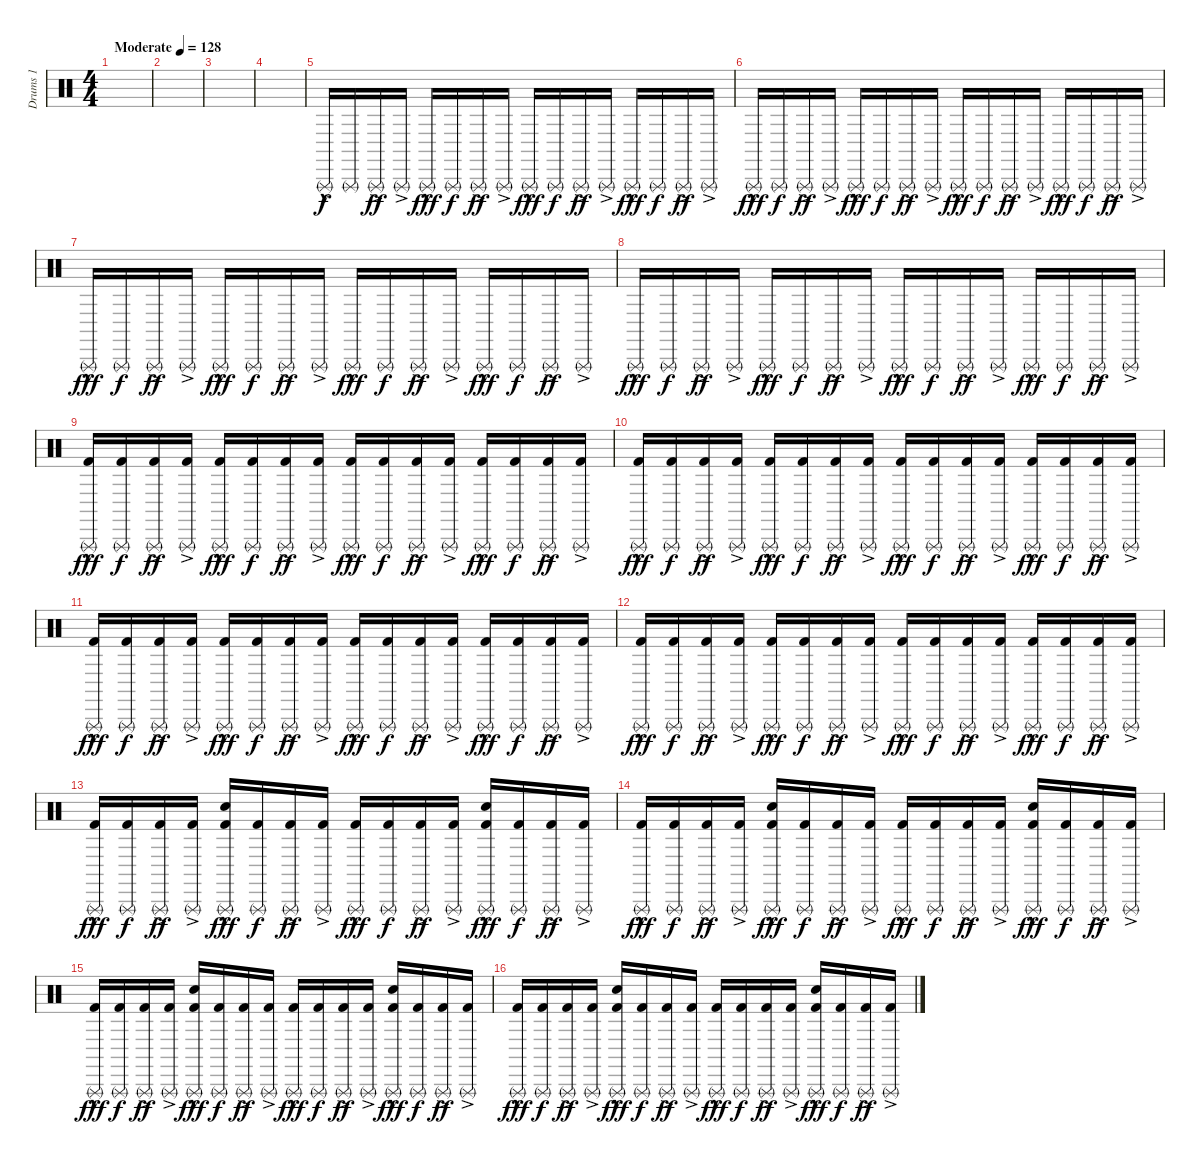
\track ("Drums 1" "Drums 1") {instrument percussion}
\staff {score}
\articulation defaults
\ts (4 4)
\tempo (128 "Moderate")
\clef neutral
\ks c
|
|
|
|
"Triangle (rnute)"{hac}.16 "Triangle (rnute)".16{dy f} "Triangle (rnute)"{ac}.16{dy ff} "Triangle (rnute)"{ac}.16 "Triangle (rnute)"{hac}.16{dy fff} "Triangle (rnute)".16{dy f} "Triangle (rnute)"{ac}.16{dy ff} "Triangle (rnute)"{ac}.16 "Triangle (rnute)"{hac}.16{dy fff} "Triangle (rnute)".16{dy f} "Triangle (rnute)"{ac}.16{dy ff} "Triangle (rnute)"{ac}.16 "Triangle (rnute)"{hac}.16{dy fff} "Triangle (rnute)".16{dy f} "Triangle (rnute)"{ac}.16{dy ff} "Triangle (rnute)"{ac}.16 |
"Triangle (rnute)"{hac}.16{dy fff} "Triangle (rnute)".16{dy f} "Triangle (rnute)"{ac}.16{dy ff} "Triangle (rnute)"{ac}.16 "Triangle (rnute)"{hac}.16{dy fff} "Triangle (rnute)".16{dy f} "Triangle (rnute)"{ac}.16{dy ff} "Triangle (rnute)"{ac}.16 "Triangle (rnute)"{hac}.16{dy fff} "Triangle (rnute)".16{dy f} "Triangle (rnute)"{ac}.16{dy ff} "Triangle (rnute)"{ac}.16 "Triangle (rnute)"{hac}.16{dy fff} "Triangle (rnute)".16{dy f} "Triangle (rnute)"{ac}.16{dy ff} "Triangle (rnute)"{ac}.16 |
"Triangle (rnute)"{hac}.16{dy fff} "Triangle (rnute)".16{dy f} "Triangle (rnute)"{ac}.16{dy ff} "Triangle (rnute)"{ac}.16 "Triangle (rnute)"{hac}.16{dy fff} "Triangle (rnute)".16{dy f} "Triangle (rnute)"{ac}.16{dy ff} "Triangle (rnute)"{ac}.16 "Triangle (rnute)"{hac}.16{dy fff} "Triangle (rnute)".16{dy f} "Triangle (rnute)"{ac}.16{dy ff} "Triangle (rnute)"{ac}.16 "Triangle (rnute)"{hac}.16{dy fff} "Triangle (rnute)".16{dy f} "Triangle (rnute)"{ac}.16{dy ff} "Triangle (rnute)"{ac}.16 |
"Triangle (rnute)"{hac}.16{dy fff} "Triangle (rnute)".16{dy f} "Triangle (rnute)"{ac}.16{dy ff} "Triangle (rnute)"{ac}.16 "Triangle (rnute)"{hac}.16{dy fff} "Triangle (rnute)".16{dy f} "Triangle (rnute)"{ac}.16{dy ff} "Triangle (rnute)"{ac}.16 "Triangle (rnute)"{hac}.16{dy fff} "Triangle (rnute)".16{dy f} "Triangle (rnute)"{ac}.16{dy ff} "Triangle (rnute)"{ac}.16 "Triangle (rnute)"{hac}.16{dy fff} "Triangle (rnute)".16{dy f} "Triangle (rnute)"{ac}.16{dy ff} "Triangle (rnute)"{ac}.16 |
("Triangle (rnute)"{hac} "Kick (hit) 2"{hac}).16{dy fff} ("Triangle (rnute)" "Kick (hit) 2").16{dy f} ("Triangle (rnute)"{ac} "Kick (hit) 2").16{dy ff} ("Triangle (rnute)"{ac} "Kick (hit) 2").16 ("Triangle (rnute)"{hac} "Kick (hit) 2"{hac}).16{dy fff} ("Triangle (rnute)" "Kick (hit) 2").16{dy f} ("Triangle (rnute)"{ac} "Kick (hit) 2").16{dy ff} ("Triangle (rnute)"{ac} "Kick (hit) 2").16 ("Triangle (rnute)"{hac} "Kick (hit) 2"{hac}).16{dy fff} ("Triangle (rnute)" "Kick (hit) 2").16{dy f} ("Triangle (rnute)"{ac} "Kick (hit) 2").16{dy ff} ("Triangle (rnute)"{ac} "Kick (hit) 2").16 ("Triangle (rnute)"{hac} "Kick (hit) 2"{hac}).16{dy fff} ("Triangle (rnute)" "Kick (hit) 2").16{dy f} ("Triangle (rnute)"{ac} "Kick (hit) 2").16{dy ff} ("Triangle (rnute)"{ac} "Kick (hit) 2").16 |
("Triangle (rnute)"{hac} "Kick (hit) 2"{hac}).16{dy fff} ("Triangle (rnute)" "Kick (hit) 2").16{dy f} ("Triangle (rnute)"{ac} "Kick (hit) 2").16{dy ff} ("Triangle (rnute)"{ac} "Kick (hit) 2").16 ("Triangle (rnute)"{hac} "Kick (hit) 2"{hac}).16{dy fff} ("Triangle (rnute)" "Kick (hit) 2").16{dy f} ("Triangle (rnute)"{ac} "Kick (hit) 2").16{dy ff} ("Triangle (rnute)"{ac} "Kick (hit) 2").16 ("Triangle (rnute)"{hac} "Kick (hit) 2"{hac}).16{dy fff} ("Triangle (rnute)" "Kick (hit) 2").16{dy f} ("Triangle (rnute)"{ac} "Kick (hit) 2").16{dy ff} ("Triangle (rnute)"{ac} "Kick (hit) 2").16 ("Triangle (rnute)"{hac} "Kick (hit) 2"{hac}).16{dy fff} ("Triangle (rnute)" "Kick (hit) 2").16{dy f} ("Triangle (rnute)"{ac} "Kick (hit) 2").16{dy ff} ("Triangle (rnute)"{ac} "Kick (hit) 2").16 |
("Triangle (rnute)"{hac} "Kick (hit) 2"{hac}).16{dy fff} ("Triangle (rnute)" "Kick (hit) 2").16{dy f} ("Triangle (rnute)"{ac} "Kick (hit) 2").16{dy ff} ("Triangle (rnute)"{ac} "Kick (hit) 2").16 ("Triangle (rnute)"{hac} "Kick (hit) 2"{hac}).16{dy fff} ("Triangle (rnute)" "Kick (hit) 2").16{dy f} ("Triangle (rnute)"{ac} "Kick (hit) 2").16{dy ff} ("Triangle (rnute)"{ac} "Kick (hit) 2").16 ("Triangle (rnute)"{hac} "Kick (hit) 2"{hac}).16{dy fff} ("Triangle (rnute)" "Kick (hit) 2").16{dy f} ("Triangle (rnute)"{ac} "Kick (hit) 2").16{dy ff} ("Triangle (rnute)"{ac} "Kick (hit) 2").16 ("Triangle (rnute)"{hac} "Kick (hit) 2"{hac}).16{dy fff} ("Triangle (rnute)" "Kick (hit) 2").16{dy f} ("Triangle (rnute)"{ac} "Kick (hit) 2").16{dy ff} ("Triangle (rnute)"{ac} "Kick (hit) 2").16 |
("Triangle (rnute)"{hac} "Kick (hit) 2"{hac}).16{dy fff} ("Triangle (rnute)" "Kick (hit) 2").16{dy f} ("Triangle (rnute)"{ac} "Kick (hit) 2").16{dy ff} ("Triangle (rnute)"{ac} "Kick (hit) 2").16 ("Triangle (rnute)"{hac} "Kick (hit) 2"{hac}).16{dy fff} ("Triangle (rnute)" "Kick (hit) 2").16{dy f} ("Triangle (rnute)"{ac} "Kick (hit) 2").16{dy ff} ("Triangle (rnute)"{ac} "Kick (hit) 2").16 ("Triangle (rnute)"{hac} "Kick (hit) 2"{hac}).16{dy fff} ("Triangle (rnute)" "Kick (hit) 2").16{dy f} ("Triangle (rnute)"{ac} "Kick (hit) 2").16{dy ff} ("Triangle (rnute)"{ac} "Kick (hit) 2").16 ("Triangle (rnute)"{hac} "Kick (hit) 2"{hac}).16{dy fff} ("Triangle (rnute)" "Kick (hit) 2").16{dy f} ("Triangle (rnute)"{ac} "Kick (hit) 2").16{dy ff} ("Triangle (rnute)"{ac} "Kick (hit) 2").16 |
("Triangle (rnute)"{hac} "Kick (hit) 2"{hac}).16{dy fff} ("Triangle (rnute)" "Kick (hit) 2").16{dy f} ("Triangle (rnute)"{ac} "Kick (hit) 2").16{dy ff} ("Triangle (rnute)"{ac} "Kick (hit) 2").16 ("Triangle (rnute)"{hac} "Snare (hit) 2"{hac} "Kick (hit) 2"{hac}).16{dy fff} ("Triangle (rnute)" "Kick (hit) 2").16{dy f} ("Triangle (rnute)"{ac} "Kick (hit) 2").16{dy ff} ("Triangle (rnute)"{ac} "Kick (hit) 2").16 ("Triangle (rnute)"{hac} "Kick (hit) 2"{hac}).16{dy fff} ("Triangle (rnute)" "Kick (hit) 2").16{dy f} ("Triangle (rnute)"{ac} "Kick (hit) 2").16{dy ff} ("Triangle (rnute)"{ac} "Kick (hit) 2").16 ("Triangle (rnute)"{hac} "Snare (hit) 2"{hac} "Kick (hit) 2"{hac}).16{dy fff} ("Triangle (rnute)" "Kick (hit) 2").16{dy f} ("Triangle (rnute)"{ac} "Kick (hit) 2").16{dy ff} ("Triangle (rnute)"{ac} "Kick (hit) 2").16 |
("Triangle (rnute)"{hac} "Kick (hit) 2"{hac}).16{dy fff} ("Triangle (rnute)" "Kick (hit) 2").16{dy f} ("Triangle (rnute)"{ac} "Kick (hit) 2").16{dy ff} ("Triangle (rnute)"{ac} "Kick (hit) 2").16 ("Triangle (rnute)"{hac} "Snare (hit) 2"{hac} "Kick (hit) 2"{hac}).16{dy fff} ("Triangle (rnute)" "Kick (hit) 2").16{dy f} ("Triangle (rnute)"{ac} "Kick (hit) 2").16{dy ff} ("Triangle (rnute)"{ac} "Kick (hit) 2").16 ("Triangle (rnute)"{hac} "Kick (hit) 2"{hac}).16{dy fff} ("Triangle (rnute)" "Kick (hit) 2").16{dy f} ("Triangle (rnute)"{ac} "Kick (hit) 2").16{dy ff} ("Triangle (rnute)"{ac} "Kick (hit) 2").16 ("Triangle (rnute)"{hac} "Snare (hit) 2"{hac} "Kick (hit) 2"{hac}).16{dy fff} ("Triangle (rnute)" "Kick (hit) 2").16{dy f} ("Triangle (rnute)"{ac} "Kick (hit) 2").16{dy ff} ("Triangle (rnute)"{ac} "Kick (hit) 2").16 |
("Triangle (rnute)"{hac} "Kick (hit) 2"{hac}).16{dy fff} ("Triangle (rnute)" "Kick (hit) 2").16{dy f} ("Triangle (rnute)"{ac} "Kick (hit) 2").16{dy ff} ("Triangle (rnute)"{ac} "Kick (hit) 2").16 ("Triangle (rnute)"{hac} "Snare (hit) 2"{hac} "Kick (hit) 2"{hac}).16{dy fff} ("Triangle (rnute)" "Kick (hit) 2").16{dy f} ("Triangle (rnute)"{ac} "Kick (hit) 2").16{dy ff} ("Triangle (rnute)"{ac} "Kick (hit) 2").16 ("Triangle (rnute)"{hac} "Kick (hit) 2"{hac}).16{dy fff} ("Triangle (rnute)" "Kick (hit) 2").16{dy f} ("Triangle (rnute)"{ac} "Kick (hit) 2").16{dy ff} ("Triangle (rnute)"{ac} "Kick (hit) 2").16 ("Triangle (rnute)"{hac} "Snare (hit) 2"{hac} "Kick (hit) 2"{hac}).16{dy fff} ("Triangle (rnute)" "Kick (hit) 2").16{dy f} ("Triangle (rnute)"{ac} "Kick (hit) 2").16{dy ff} ("Triangle (rnute)"{ac} "Kick (hit) 2").16 |
("Triangle (rnute)"{hac} "Kick (hit) 2"{hac}).16{dy fff} ("Triangle (rnute)" "Kick (hit) 2").16{dy f} ("Triangle (rnute)"{ac} "Kick (hit) 2").16{dy ff} ("Triangle (rnute)"{ac} "Kick (hit) 2").16 ("Triangle (rnute)"{hac} "Snare (hit) 2"{hac} "Kick (hit) 2"{hac}).16{dy fff} ("Triangle (rnute)" "Kick (hit) 2").16{dy f} ("Triangle (rnute)"{ac} "Kick (hit) 2").16{dy ff} ("Triangle (rnute)"{ac} "Kick (hit) 2").16 ("Triangle (rnute)"{hac} "Kick (hit) 2"{hac}).16{dy fff} ("Triangle (rnute)" "Kick (hit) 2").16{dy f} ("Triangle (rnute)"{ac} "Kick (hit) 2").16{dy ff} ("Triangle (rnute)"{ac} "Kick (hit) 2").16 ("Triangle (rnute)"{hac} "Snare (hit) 2"{hac} "Kick (hit) 2"{hac}).16{dy fff} ("Triangle (rnute)" "Kick (hit) 2").16{dy f} ("Triangle (rnute)"{ac} "Kick (hit) 2").16{dy ff} ("Triangle (rnute)"{ac} "Kick (hit) 2").16
